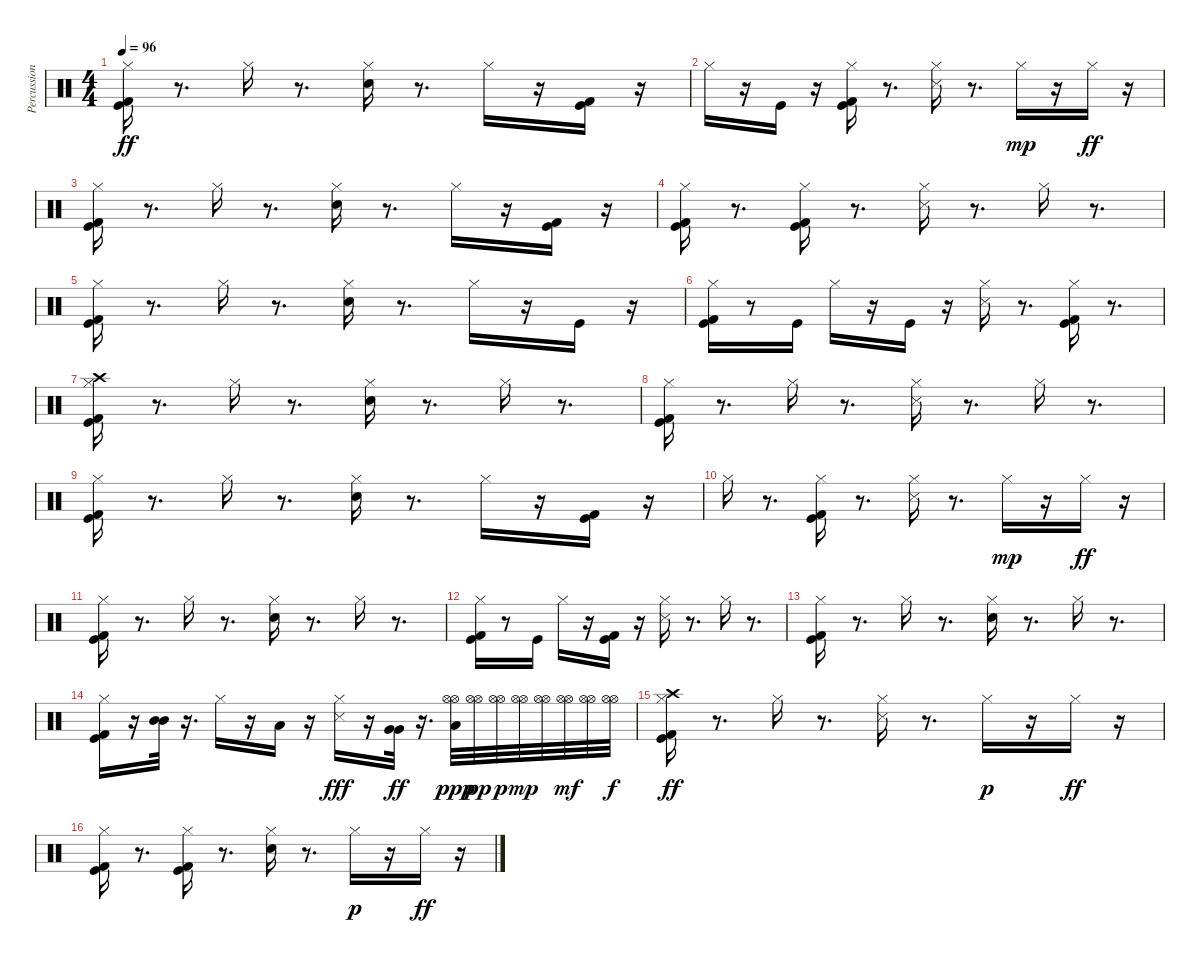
\track ("Percussion" "Percussion") {instrument percussion}
\staff {score}
\articulation defaults
\ts (4 4)
\tempo 96
\clef neutral
\ks c
("Hi-Hat (closed)" "Kick (hit)" "Kick (hit) 2").16{dy ff} r.8{d} "Hi-Hat (closed)".16 r.8{d} ("Electric Snare (hit)" "Hi-Hat (closed)").16 r.8{d} "Hi-Hat (closed)".16 r.16 ("Kick (hit) 2" "Kick (hit)").16 r.16 |
"Hi-Hat (closed)".16 r.16 "Kick (hit)".16 r.16 ("Hi-Hat (closed)" "Kick (hit) 2" "Kick (hit)").16 r.8{d} ("Snare (side stick) 3" "Hi-Hat (closed)").16 r.8{d} "Hi-Hat (closed)".16{dy mp} r.16 "Hi-Hat (closed)".16{dy ff} r.16 |
("Hi-Hat (closed)" "Kick (hit)" "Kick (hit) 2").16 r.8{d} "Hi-Hat (closed)".16 r.8{d} ("Electric Snare (hit)" "Hi-Hat (closed)").16 r.8{d} "Hi-Hat (closed)".16 r.16 ("Kick (hit) 2" "Kick (hit)").16 r.16 |
("Hi-Hat (closed)" "Kick (hit)" "Kick (hit) 2").16 r.8{d} ("Hi-Hat (closed)" "Kick (hit) 2" "Kick (hit)").16 r.8{d} ("Snare (side stick) 3" "Hi-Hat (closed)").16 r.8{d} "Hi-Hat (closed)".16 r.8{d} |
("Hi-Hat (closed)" "Kick (hit)" "Kick (hit) 2").16 r.8{d} "Hi-Hat (closed)".16 r.8{d} ("Electric Snare (hit)" "Hi-Hat (closed)").16 r.8{d} "Hi-Hat (closed)".16 r.16 "Kick (hit)".16 r.16 |
("Hi-Hat (closed)" "Kick (hit) 2" "Kick (hit)").16 r.8 "Kick (hit)".16 "Hi-Hat (closed)".16 r.16 "Kick (hit)".16 r.16 ("Snare (side stick) 3" "Hi-Hat (closed)").16 r.8{d} ("Hi-Hat (closed)" "Kick (hit) 2" "Kick (hit)").16 r.8{d} |
("Hi-Hat (closed)" "Crash high (hit)" "Kick (hit)" "Kick (hit) 2").16 r.8{d} "Hi-Hat (closed)".16 r.8{d} ("Electric Snare (hit)" "Hi-Hat (closed)").16 r.8{d} "Hi-Hat (closed)".16 r.8{d} |
("Hi-Hat (closed)" "Kick (hit)" "Kick (hit) 2").16 r.8{d} "Hi-Hat (closed)".16 r.8{d} ("Snare (side stick) 3" "Hi-Hat (closed)").16 r.8{d} "Hi-Hat (closed)".16 r.8{d} |
("Hi-Hat (closed)" "Kick (hit)" "Kick (hit) 2").16 r.8{d} "Hi-Hat (closed)".16 r.8{d} ("Electric Snare (hit)" "Hi-Hat (closed)").16 r.8{d} "Hi-Hat (closed)".16 r.16 ("Kick (hit) 2" "Kick (hit)").16 r.16 |
"Hi-Hat (closed)".16 r.8{d} ("Hi-Hat (closed)" "Kick (hit) 2" "Kick (hit)").16 r.8{d} ("Snare (side stick) 3" "Hi-Hat (closed)").16 r.8{d} "Hi-Hat (closed)".16{dy mp} r.16 "Hi-Hat (closed)".16{dy ff} r.16 |
("Hi-Hat (closed)" "Kick (hit)" "Kick (hit) 2").16 r.8{d} "Hi-Hat (closed)".16 r.8{d} ("Electric Snare (hit)" "Hi-Hat (closed)").16 r.8{d} "Hi-Hat (closed)".16 r.8{d} |
("Hi-Hat (closed)" "Kick (hit) 2" "Kick (hit)").16 r.8 "Kick (hit)".16 "Hi-Hat (closed)".16 r.16 ("Kick (hit) 2" "Kick (hit)").16 r.16 ("Snare (side stick) 3" "Hi-Hat (closed)").16 r.8{d} "Hi-Hat (closed)".16 r.8{d} |
("Hi-Hat (closed)" "Kick (hit)" "Kick (hit) 2").16 r.8{d} "Hi-Hat (closed)".16 r.8{d} ("Electric Snare (hit)" "Hi-Hat (closed)").16 r.8{d} "Hi-Hat (closed)".16 r.8{d} |
("Hi-Hat (closed)" "Kick (hit)" "Kick (hit) 2").16 r.16 ("Mid Tom (hit)" "Mid Tom (hit)").32 r.16{d} "Hi-Hat (closed)".16 r.16 "Low Tom (hit)".16 r.16 ("Hi-Hat (closed)" "Snare (side stick) 3").16{dy fff} r.16 ("Very Low Tom (hit)" "Very Low Tom (hit)").32{dy ff} r.16{d} ("Low Floor Tom (hit)" "Hi-Hat (open)" "Hi-Hat (open)").32{dy ppp} ("Hi-Hat (open)" "Hi-Hat (open)").32{dy pp} ("Hi-Hat (open)" "Hi-Hat (open)").32{dy p} ("Hi-Hat (open)" "Hi-Hat (open)").32{dy mp} ("Hi-Hat (open)" "Hi-Hat (open)").32 ("Hi-Hat (open)" "Hi-Hat (open)").32{dy mf} ("Hi-Hat (open)" "Hi-Hat (open)").32 ("Hi-Hat (open)" "Hi-Hat (open)").32{dy f} |
("Hi-Hat (closed)" "Crash high (hit)" "Kick (hit) 2" "Kick (hit)").16{dy ff} r.8{d} "Hi-Hat (closed)".16 r.8{d} ("Snare (side stick) 3" "Hi-Hat (closed)").16 r.8{d} "Hi-Hat (closed)".16{dy p} r.16 "Hi-Hat (closed)".16{dy ff} r.16 |
("Hi-Hat (closed)" "Kick (hit)" "Kick (hit) 2").16 r.8{d} ("Hi-Hat (closed)" "Kick (hit) 2" "Kick (hit)").16 r.8{d} ("Electric Snare (hit)" "Hi-Hat (closed)").16 r.8{d} "Hi-Hat (closed)".16{dy p} r.16 "Hi-Hat (closed)".16{dy ff} r.16
